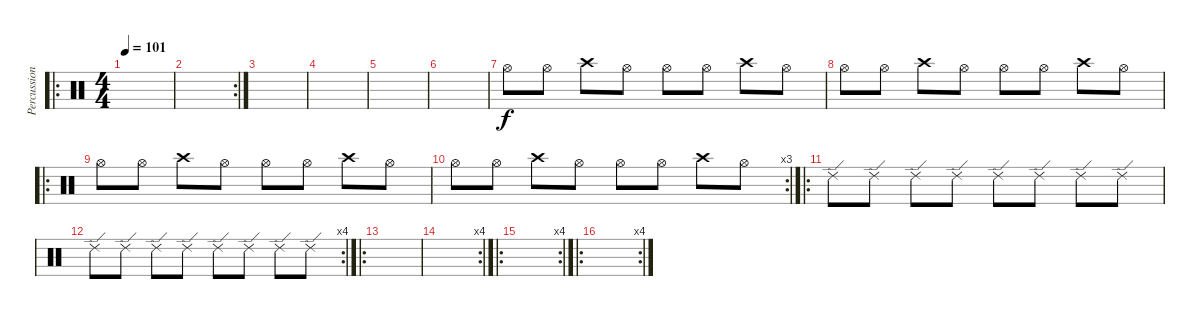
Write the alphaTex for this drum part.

\track ("Percussion2" "Percussion") {instrument percussion}
\staff {score}
\articulation defaults
\ro
\ts (4 4)
\tempo 101
\clef neutral
\ks c
|
\rc 2
|
|
|
|
|
"Hi-Hat (open)".8 "Hi-Hat (open)".8 "Crash high (hit)".8 "Hi-Hat (open)".8 "Hi-Hat (open)".8 "Hi-Hat (open)".8 "Crash high (hit)".8 "Hi-Hat (open)".8 |
"Hi-Hat (open)".8 "Hi-Hat (open)".8 "Crash high (hit)".8 "Hi-Hat (open)".8 "Hi-Hat (open)".8 "Hi-Hat (open)".8 "Crash high (hit)".8 "Hi-Hat (open)".8 |
\ro "Hi-Hat (open)".8 "Hi-Hat (open)".8 "Crash high (hit)".8 "Hi-Hat (open)".8 "Hi-Hat (open)".8 "Hi-Hat (open)".8 "Crash high (hit)".8 "Hi-Hat (open)".8
|
\rc 3 "Hi-Hat (open)".8 "Hi-Hat (open)".8 "Crash high (hit)".8 "Hi-Hat (open)".8 "Hi-Hat (open)".8 "Hi-Hat (open)".8 "Crash high (hit)".8 "Hi-Hat (open)".8
|
\ro "Ride (edge) 2".8 "Ride (edge) 2".8 "Ride (edge) 2".8 "Ride (edge) 2".8 "Ride (edge) 2".8 "Ride (edge) 2".8 "Ride (edge) 2".8 "Ride (edge) 2".8
|
\rc 4 "Ride (edge) 2".8 "Ride (edge) 2".8 "Ride (edge) 2".8 "Ride (edge) 2".8 "Ride (edge) 2".8 "Ride (edge) 2".8 "Ride (edge) 2".8 "Ride (edge) 2".8
|
\ro
|
\rc 4
|
\ro
\rc 4
|
\ro
\rc 4
